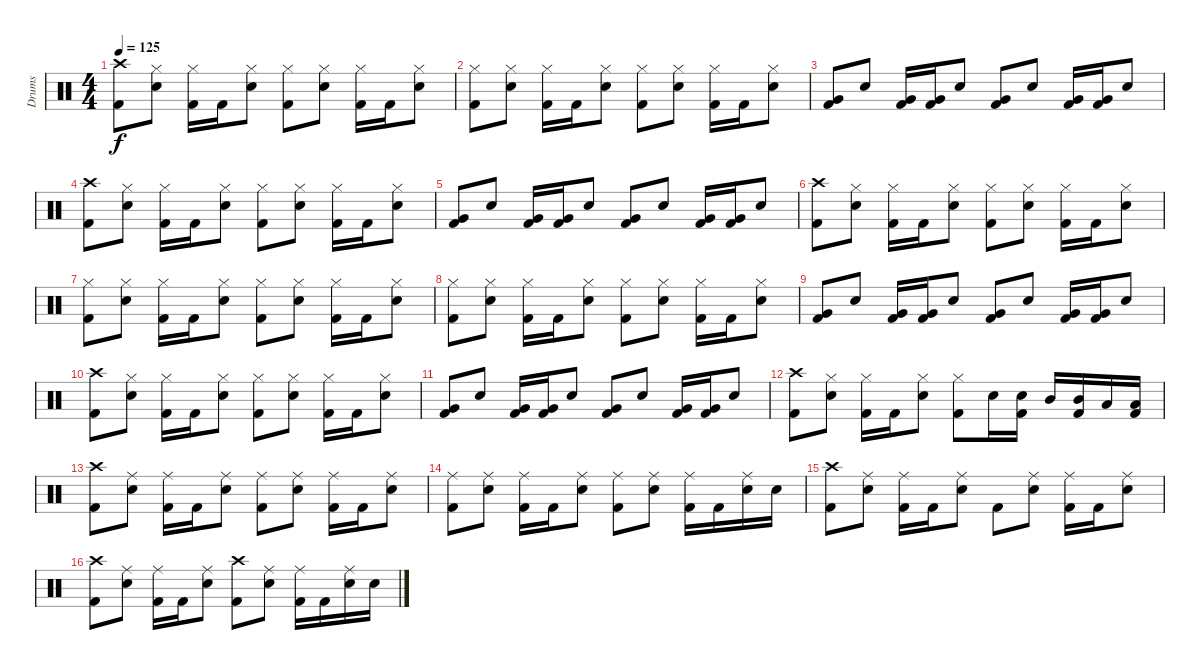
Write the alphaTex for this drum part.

\track ("Drums" "Drums") {instrument percussion}
\staff {score}
\articulation defaults
\ts (4 4)
\tempo 125
\clef neutral
\ks c
("Crash high (hit)" "Kick (hit) 2").8{dy f} ("Hi-Hat (closed)" "Electric Snare (hit)").8 ("Hi-Hat (closed)" "Kick (hit) 2").16 "Kick (hit) 2".16 ("Hi-Hat (closed)" "Electric Snare (hit)").8 ("Hi-Hat (closed)" "Kick (hit) 2").8 ("Hi-Hat (closed)" "Electric Snare (hit)").8 ("Hi-Hat (closed)" "Kick (hit) 2").16 "Kick (hit) 2".16 ("Hi-Hat (closed)" "Electric Snare (hit)").8 |
("Hi-Hat (closed)" "Kick (hit) 2").8 ("Hi-Hat (closed)" "Electric Snare (hit)").8 ("Hi-Hat (closed)" "Kick (hit) 2").16 "Kick (hit) 2".16 ("Hi-Hat (closed)" "Electric Snare (hit)").8 ("Hi-Hat (closed)" "Kick (hit) 2").8 ("Hi-Hat (closed)" "Electric Snare (hit)").8 ("Hi-Hat (closed)" "Kick (hit) 2").16 "Kick (hit) 2".16 ("Hi-Hat (closed)" "Electric Snare (hit)").8 |
("Very Low Tom (hit)" "Kick (hit) 2").8 "Electric Snare (hit)".8 ("Very Low Tom (hit)" "Kick (hit) 2").16 ("Very Low Tom (hit)" "Kick (hit) 2").16 "Electric Snare (hit)".8 ("Very Low Tom (hit)" "Kick (hit) 2").8 "Electric Snare (hit)".8 ("Very Low Tom (hit)" "Kick (hit) 2").16 ("Very Low Tom (hit)" "Kick (hit) 2").16 "Electric Snare (hit)".8 |
("Crash high (hit)" "Kick (hit) 2").8 ("Hi-Hat (closed)" "Electric Snare (hit)").8 ("Hi-Hat (closed)" "Kick (hit) 2").16 "Kick (hit) 2".16 ("Hi-Hat (closed)" "Electric Snare (hit)").8 ("Hi-Hat (closed)" "Kick (hit) 2").8 ("Hi-Hat (closed)" "Electric Snare (hit)").8 ("Hi-Hat (closed)" "Kick (hit) 2").16 "Kick (hit) 2".16 ("Hi-Hat (closed)" "Electric Snare (hit)").8 |
("Very Low Tom (hit)" "Kick (hit) 2").8 "Electric Snare (hit)".8 ("Very Low Tom (hit)" "Kick (hit) 2").16 ("Very Low Tom (hit)" "Kick (hit) 2").16 "Electric Snare (hit)".8 ("Very Low Tom (hit)" "Kick (hit) 2").8 "Electric Snare (hit)".8 ("Very Low Tom (hit)" "Kick (hit) 2").16 ("Very Low Tom (hit)" "Kick (hit) 2").16 "Electric Snare (hit)".8 |
("Crash high (hit)" "Kick (hit) 2").8 ("Hi-Hat (closed)" "Electric Snare (hit)").8 ("Hi-Hat (closed)" "Kick (hit) 2").16 "Kick (hit) 2".16 ("Hi-Hat (closed)" "Electric Snare (hit)").8 ("Hi-Hat (closed)" "Kick (hit) 2").8 ("Hi-Hat (closed)" "Electric Snare (hit)").8 ("Hi-Hat (closed)" "Kick (hit) 2").16 "Kick (hit) 2".16 ("Hi-Hat (closed)" "Electric Snare (hit)").8 |
("Hi-Hat (closed)" "Kick (hit) 2").8 ("Hi-Hat (closed)" "Electric Snare (hit)").8 ("Hi-Hat (closed)" "Kick (hit) 2").16 "Kick (hit) 2".16 ("Hi-Hat (closed)" "Electric Snare (hit)").8 ("Hi-Hat (closed)" "Kick (hit) 2").8 ("Hi-Hat (closed)" "Electric Snare (hit)").8 ("Hi-Hat (closed)" "Kick (hit) 2").16 "Kick (hit) 2".16 ("Hi-Hat (closed)" "Electric Snare (hit)").8 |
("Hi-Hat (closed)" "Kick (hit) 2").8 ("Hi-Hat (closed)" "Electric Snare (hit)").8 ("Hi-Hat (closed)" "Kick (hit) 2").16 "Kick (hit) 2".16 ("Hi-Hat (closed)" "Electric Snare (hit)").8 ("Hi-Hat (closed)" "Kick (hit) 2").8 ("Hi-Hat (closed)" "Electric Snare (hit)").8 ("Hi-Hat (closed)" "Kick (hit) 2").16 "Kick (hit) 2".16 ("Hi-Hat (closed)" "Electric Snare (hit)").8 |
("Very Low Tom (hit)" "Kick (hit) 2").8 "Electric Snare (hit)".8 ("Very Low Tom (hit)" "Kick (hit) 2").16 ("Very Low Tom (hit)" "Kick (hit) 2").16 "Electric Snare (hit)".8 ("Very Low Tom (hit)" "Kick (hit) 2").8 "Electric Snare (hit)".8 ("Very Low Tom (hit)" "Kick (hit) 2").16 ("Very Low Tom (hit)" "Kick (hit) 2").16 "Electric Snare (hit)".8 |
("Crash high (hit)" "Kick (hit) 2").8 ("Hi-Hat (closed)" "Electric Snare (hit)").8 ("Hi-Hat (closed)" "Kick (hit) 2").16 "Kick (hit) 2".16 ("Hi-Hat (closed)" "Electric Snare (hit)").8 ("Hi-Hat (closed)" "Kick (hit) 2").8 ("Hi-Hat (closed)" "Electric Snare (hit)").8 ("Hi-Hat (closed)" "Kick (hit) 2").16 "Kick (hit) 2".16 ("Hi-Hat (closed)" "Electric Snare (hit)").8 |
("Very Low Tom (hit)" "Kick (hit) 2").8 "Electric Snare (hit)".8 ("Very Low Tom (hit)" "Kick (hit) 2").16 ("Very Low Tom (hit)" "Kick (hit) 2").16 "Electric Snare (hit)".8 ("Very Low Tom (hit)" "Kick (hit) 2").8 "Electric Snare (hit)".8 ("Very Low Tom (hit)" "Kick (hit) 2").16 ("Very Low Tom (hit)" "Kick (hit) 2").16 "Electric Snare (hit)".8 |
("Crash high (hit)" "Kick (hit) 2").8 ("Hi-Hat (closed)" "Electric Snare (hit)").8 ("Hi-Hat (closed)" "Kick (hit) 2").16 "Kick (hit) 2".16 ("Hi-Hat (closed)" "Electric Snare (hit)").8 ("Hi-Hat (closed)" "Kick (hit) 2").8 "Electric Snare (hit)".16 ("Electric Snare (hit)" "Kick (hit) 2").16 "Mid Tom (hit)".16 ("Mid Tom (hit)" "Kick (hit) 2").16 "Low Tom (hit)".16 ("Low Tom (hit)" "Kick (hit) 2").16 |
("Crash high (hit)" "Kick (hit) 2").8 ("Ride (middle)" "Electric Snare (hit)").8 ("Ride (middle)" "Kick (hit) 2").16 "Kick (hit) 2".16 ("Ride (middle)" "Electric Snare (hit)").8 ("Ride (middle)" "Kick (hit) 2").8 ("Ride (middle)" "Electric Snare (hit)").8 ("Ride (middle)" "Kick (hit) 2").16 "Kick (hit) 2".16 ("Ride (middle)" "Electric Snare (hit)").8 |
("Ride (middle)" "Kick (hit) 2").8 ("Ride (middle)" "Electric Snare (hit)").8 ("Ride (middle)" "Kick (hit) 2").16 "Kick (hit) 2".16 ("Ride (middle)" "Electric Snare (hit)").8 ("Ride (middle)" "Kick (hit) 2").8 ("Ride (middle)" "Electric Snare (hit)").8 ("Ride (middle)" "Kick (hit) 2").16 "Kick (hit) 2".16 ("Ride (middle)" "Electric Snare (hit)").16 "Electric Snare (hit)".16 |
("Crash high (hit)" "Kick (hit) 2").8 ("Ride (middle)" "Electric Snare (hit)").8 ("Ride (middle)" "Kick (hit) 2").16 "Kick (hit) 2".16 ("Ride (middle)" "Electric Snare (hit)").8 "Kick (hit) 2".8 ("Ride (middle)" "Electric Snare (hit)").8 ("Ride (middle)" "Kick (hit) 2").16 "Kick (hit) 2".16 ("Ride (middle)" "Electric Snare (hit)").8 |
("Crash high (hit)" "Kick (hit) 2").8 ("Ride (middle)" "Electric Snare (hit)").8 ("Ride (middle)" "Kick (hit) 2").16 "Kick (hit) 2".16 ("Ride (middle)" "Electric Snare (hit)").8 ("Crash high (hit)" "Kick (hit) 2").8 ("Ride (middle)" "Electric Snare (hit)").8 ("Ride (middle)" "Kick (hit) 2").16 "Kick (hit) 2".16 ("Ride (middle)" "Electric Snare (hit)").16 "Electric Snare (hit)".16
